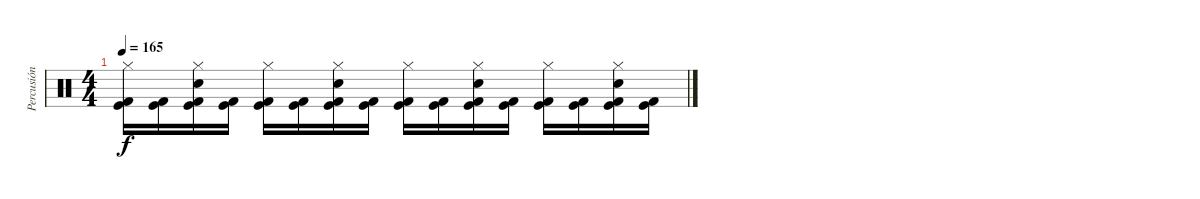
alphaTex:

\track ("Percusión" "Percusión") {instrument percussion}
\staff {score}
\articulation defaults
\ts (4 4)
\tempo 165
\clef neutral
\ks c
("Hi-Hat (closed)" "Kick (hit) 2" "Kick (hit)").16{dy f} ("Kick (hit) 2" "Kick (hit)").16 ("Hi-Hat (closed)" "Electric Snare (hit)" "Kick (hit) 2" "Kick (hit)").16 ("Kick (hit) 2" "Kick (hit)").16 ("Hi-Hat (closed)" "Kick (hit) 2" "Kick (hit)").16 ("Kick (hit) 2" "Kick (hit)").16 ("Hi-Hat (closed)" "Electric Snare (hit)" "Kick (hit) 2" "Kick (hit)").16 ("Kick (hit) 2" "Kick (hit)").16 ("Hi-Hat (closed)" "Kick (hit) 2" "Kick (hit)").16 ("Kick (hit) 2" "Kick (hit)").16 ("Hi-Hat (closed)" "Electric Snare (hit)" "Kick (hit) 2" "Kick (hit)").16 ("Kick (hit) 2" "Kick (hit)").16 ("Hi-Hat (closed)" "Kick (hit) 2" "Kick (hit)").16 ("Kick (hit) 2" "Kick (hit)").16 ("Hi-Hat (closed)" "Electric Snare (hit)" "Kick (hit) 2" "Kick (hit)").16 ("Kick (hit) 2" "Kick (hit)").16
